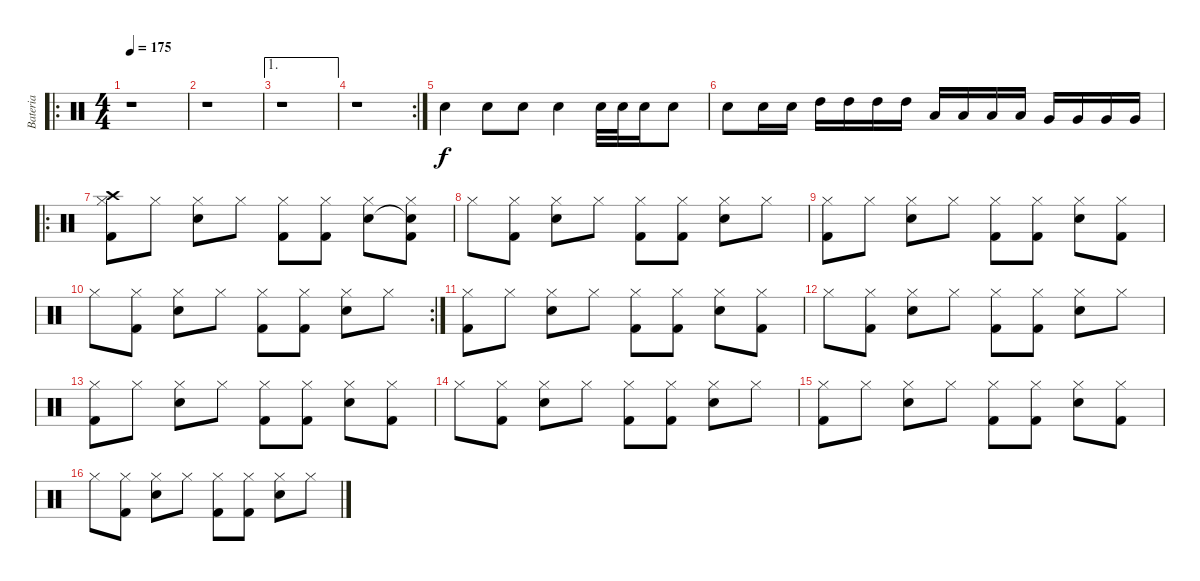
\track ("Bateria" "Bateria") {instrument percussion}
\staff {score}
\articulation defaults
\ro
\ts (4 4)
\tempo 175
\clef neutral
\ks c
r.1{dy f} |
r.1 |
\ae 1
r.1 |
\rc 2
r.1 |
"Snare (hit) 2".4 "Snare (hit) 2".8 "Snare (hit) 2".8 "Snare (hit) 2".4 "Snare (hit) 2".32 "Snare (hit) 2".32 "Snare (hit) 2".16 "Snare (hit) 2".8 |
"Snare (hit) 2".8 "Snare (hit) 2".16 "Snare (hit) 2".16 "High Tom (hit)".16 "High Tom (hit)".16 "High Tom (hit)".16 "High Tom (hit)".16 "Low Tom (hit)".16 "Low Tom (hit)".16 "Low Tom (hit)".16 "Low Tom (hit)".16 "Very Low Tom (hit)".16 "Very Low Tom (hit)".16 "Very Low Tom (hit)".16 "Very Low Tom (hit)".16 |
\ro
("Hi-Hat (closed)" "Crash high (hit)" "Kick (hit) 2").8 "Hi-Hat (closed)".8 ("Hi-Hat (closed)" "Snare (hit) 2").8 "Hi-Hat (closed)".8 ("Hi-Hat (closed)" "Kick (hit) 2").8 ("Hi-Hat (closed)" "Kick (hit) 2").8 ("Hi-Hat (closed)" "Snare (hit) 2").8 ("Hi-Hat (closed)" "Snare (hit)"{t} "Kick (hit) 2").8 |
"Hi-Hat (closed)".8 ("Hi-Hat (closed)" "Kick (hit) 2").8 ("Hi-Hat (closed)" "Snare (hit) 2").8 "Hi-Hat (closed)".8 ("Hi-Hat (closed)" "Kick (hit) 2").8 ("Hi-Hat (closed)" "Kick (hit) 2").8 ("Hi-Hat (closed)" "Snare (hit) 2").8 "Hi-Hat (closed)".8 |
("Hi-Hat (closed)" "Kick (hit) 2").8 "Hi-Hat (closed)".8 ("Hi-Hat (closed)" "Snare (hit) 2").8 "Hi-Hat (closed)".8 ("Hi-Hat (closed)" "Kick (hit) 2").8 ("Hi-Hat (closed)" "Kick (hit) 2").8 ("Hi-Hat (closed)" "Snare (hit) 2").8 ("Hi-Hat (closed)" "Kick (hit) 2").8 |
\rc 2 "Hi-Hat (closed)".8
("Hi-Hat (closed)" "Kick (hit) 2").8 ("Hi-Hat (closed)" "Snare (hit) 2").8 "Hi-Hat (closed)".8 ("Hi-Hat (closed)" "Kick (hit) 2").8 ("Hi-Hat (closed)" "Kick (hit) 2").8 ("Hi-Hat (closed)" "Snare (hit) 2").8 "Hi-Hat (closed)".8 |
("Hi-Hat (closed)" "Kick (hit) 2").8 "Hi-Hat (closed)".8 ("Hi-Hat (closed)" "Snare (hit) 2").8 "Hi-Hat (closed)".8 ("Hi-Hat (closed)" "Kick (hit) 2").8 ("Hi-Hat (closed)" "Kick (hit) 2").8 ("Hi-Hat (closed)" "Snare (hit) 2").8 ("Hi-Hat (closed)" "Kick (hit) 2").8 |
"Hi-Hat (closed)".8 ("Hi-Hat (closed)" "Kick (hit) 2").8 ("Hi-Hat (closed)" "Snare (hit) 2").8 "Hi-Hat (closed)".8 ("Hi-Hat (closed)" "Kick (hit) 2").8 ("Hi-Hat (closed)" "Kick (hit) 2").8 ("Hi-Hat (closed)" "Snare (hit) 2").8 "Hi-Hat (closed)".8 |
("Hi-Hat (closed)" "Kick (hit) 2").8 "Hi-Hat (closed)".8 ("Hi-Hat (closed)" "Snare (hit) 2").8 "Hi-Hat (closed)".8 ("Hi-Hat (closed)" "Kick (hit) 2").8 ("Hi-Hat (closed)" "Kick (hit) 2").8 ("Hi-Hat (closed)" "Snare (hit) 2").8 ("Hi-Hat (closed)" "Kick (hit) 2").8 |
"Hi-Hat (closed)".8 ("Hi-Hat (closed)" "Kick (hit) 2").8 ("Hi-Hat (closed)" "Snare (hit) 2").8 "Hi-Hat (closed)".8 ("Hi-Hat (closed)" "Kick (hit) 2").8 ("Hi-Hat (closed)" "Kick (hit) 2").8 ("Hi-Hat (closed)" "Snare (hit) 2").8 "Hi-Hat (closed)".8 |
("Hi-Hat (closed)" "Kick (hit) 2").8 "Hi-Hat (closed)".8 ("Hi-Hat (closed)" "Snare (hit) 2").8 "Hi-Hat (closed)".8 ("Hi-Hat (closed)" "Kick (hit) 2").8 ("Hi-Hat (closed)" "Kick (hit) 2").8 ("Hi-Hat (closed)" "Snare (hit) 2").8 ("Hi-Hat (closed)" "Kick (hit) 2").8 |
"Hi-Hat (closed)".8 ("Hi-Hat (closed)" "Kick (hit) 2").8 ("Hi-Hat (closed)" "Snare (hit) 2").8 "Hi-Hat (closed)".8 ("Hi-Hat (closed)" "Kick (hit) 2").8 ("Hi-Hat (closed)" "Kick (hit) 2").8 ("Hi-Hat (closed)" "Snare (hit) 2").8 "Hi-Hat (closed)".8
